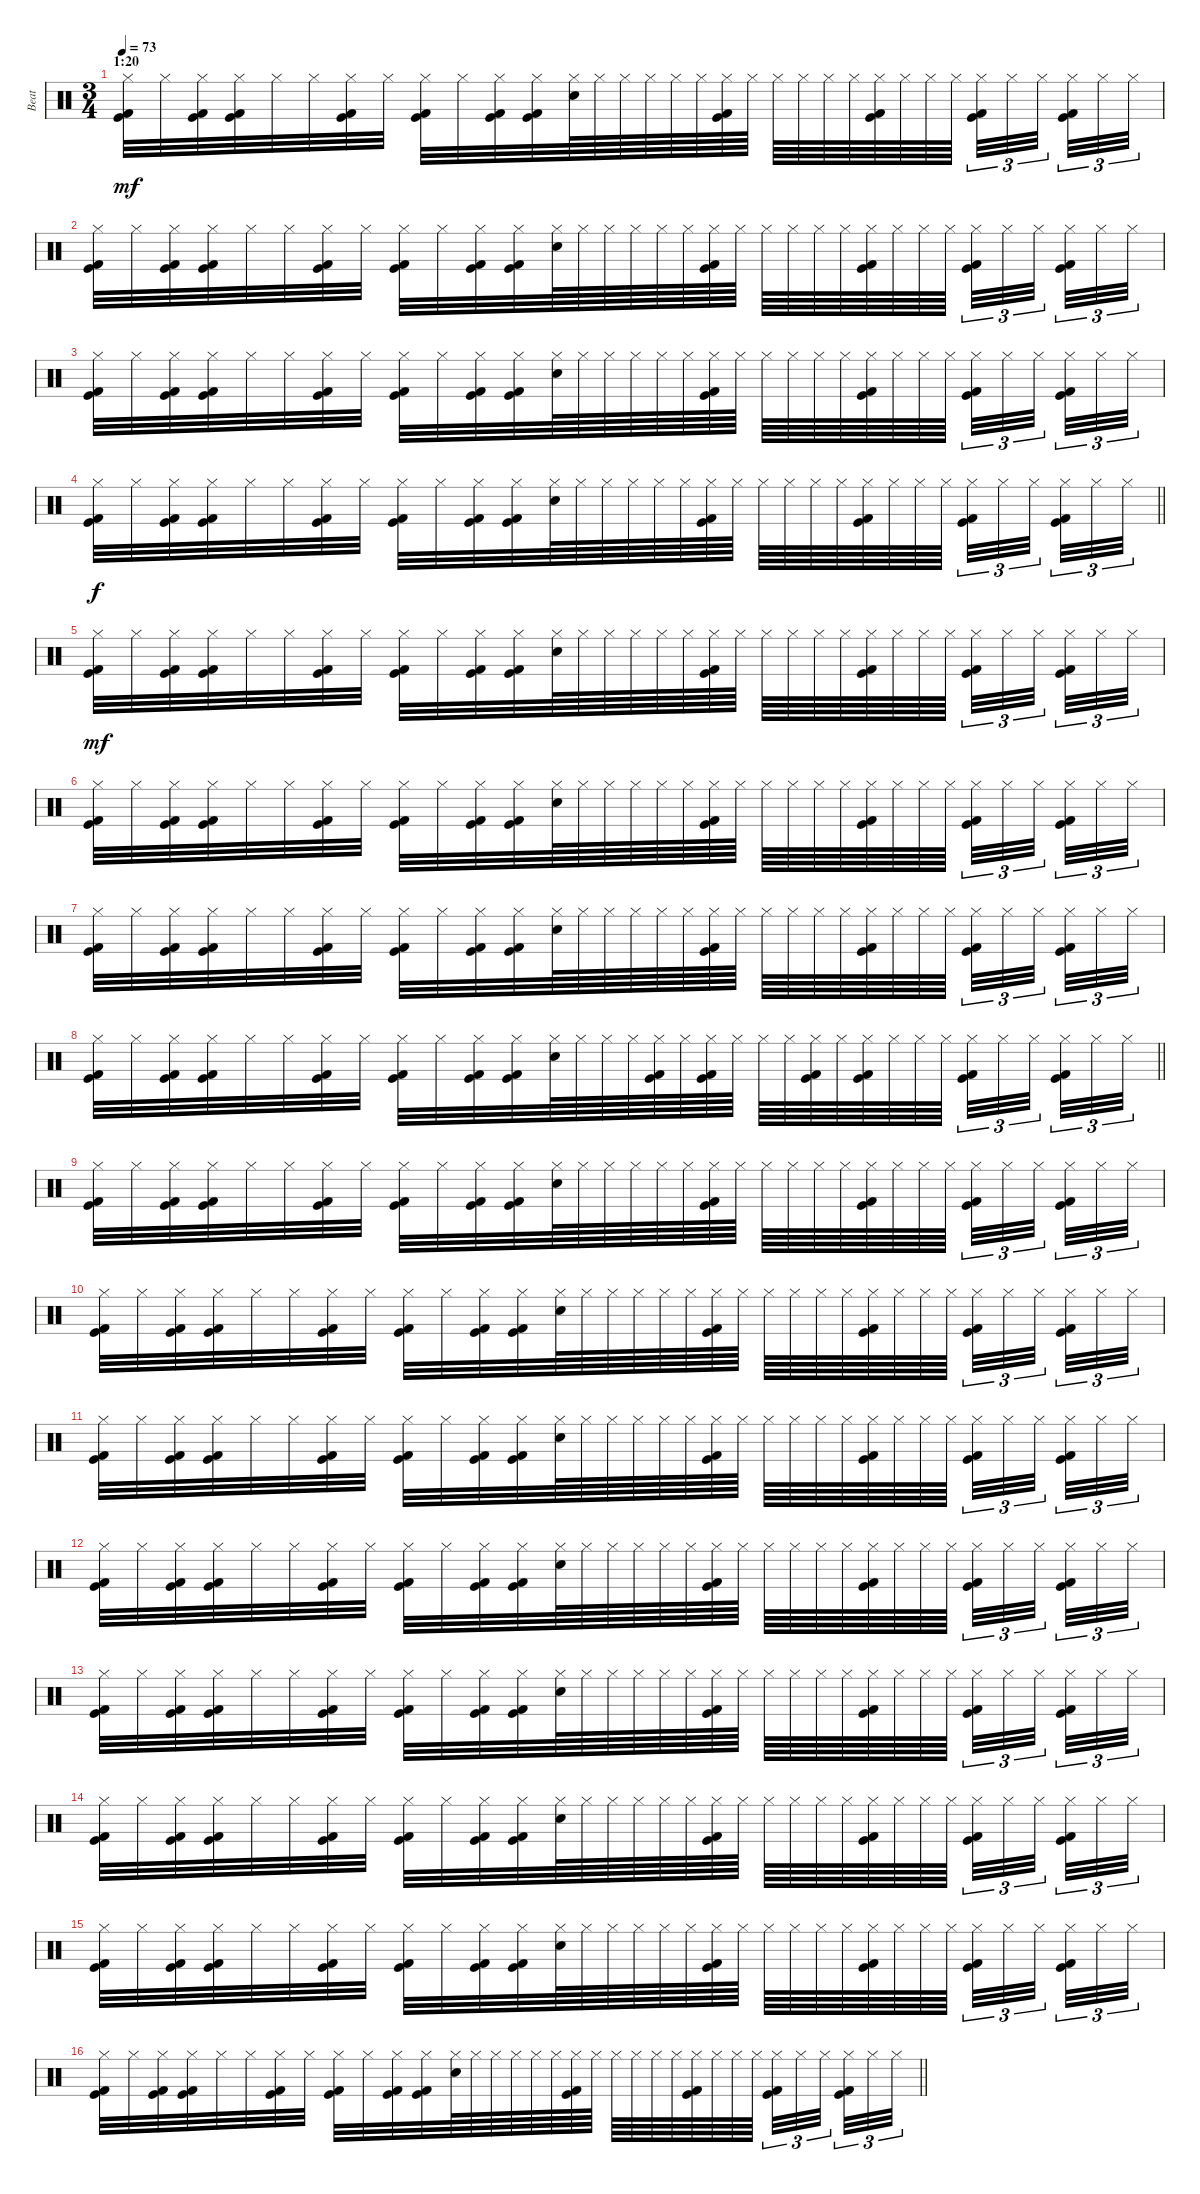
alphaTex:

\track ("Beat" "Beat") {instrument percussion}
\staff {score}
\articulation defaults
\ts (3 4)
\section ("" "1:20")
\tempo 73
\clef neutral
\ks c
("Hi-Hat (closed)" "Kick (hit)" "Kick (hit) 2").32{dy mf} "Hi-Hat (closed)".32 ("Hi-Hat (closed)" "Kick (hit)" "Kick (hit) 2").32 ("Hi-Hat (closed)" "Kick (hit)" "Kick (hit) 2").32 "Hi-Hat (closed)".32 "Hi-Hat (closed)".32 ("Hi-Hat (closed)" "Kick (hit)" "Kick (hit) 2").32 "Hi-Hat (closed)".32 ("Hi-Hat (closed)" "Kick (hit)" "Kick (hit) 2").32 "Hi-Hat (closed)".32 ("Hi-Hat (closed)" "Kick (hit)" "Kick (hit) 2").32 ("Hi-Hat (closed)" "Kick (hit)" "Kick (hit) 2").32 ("Hi-Hat (closed)" "Snare (hit) 2").64 "Hi-Hat (closed)".64 "Hi-Hat (closed)".64 "Hi-Hat (closed)".64 "Hi-Hat (closed)".64 "Hi-Hat (closed)".64 ("Hi-Hat (closed)" "Kick (hit)" "Kick (hit) 2").64 "Hi-Hat (closed)".64 "Hi-Hat (closed)".64 "Hi-Hat (closed)".64 "Hi-Hat (closed)".64 "Hi-Hat (closed)".64 ("Hi-Hat (closed)" "Kick (hit)" "Kick (hit) 2").64 "Hi-Hat (closed)".64 "Hi-Hat (closed)".64 "Hi-Hat (closed)".64{beam splitsecondary} ("Hi-Hat (closed)" "Kick (hit)" "Kick (hit) 2").32{tu (3 2)} "Hi-Hat (closed)".32{tu (3 2)} "Hi-Hat (closed)".32{tu (3 2) beam splitsecondary} ("Hi-Hat (closed)" "Kick (hit)" "Kick (hit) 2").32{tu (3 2)} "Hi-Hat (closed)".32{tu (3 2)} "Hi-Hat (closed)".32{tu (3 2)} |
("Hi-Hat (closed)" "Kick (hit)" "Kick (hit) 2").32 "Hi-Hat (closed)".32 ("Hi-Hat (closed)" "Kick (hit)" "Kick (hit) 2").32 ("Hi-Hat (closed)" "Kick (hit)" "Kick (hit) 2").32 "Hi-Hat (closed)".32 "Hi-Hat (closed)".32 ("Hi-Hat (closed)" "Kick (hit)" "Kick (hit) 2").32 "Hi-Hat (closed)".32 ("Hi-Hat (closed)" "Kick (hit)" "Kick (hit) 2").32 "Hi-Hat (closed)".32 ("Hi-Hat (closed)" "Kick (hit)" "Kick (hit) 2").32 ("Hi-Hat (closed)" "Kick (hit)" "Kick (hit) 2").32 ("Hi-Hat (closed)" "Snare (hit) 2").64 "Hi-Hat (closed)".64 "Hi-Hat (closed)".64 "Hi-Hat (closed)".64 "Hi-Hat (closed)".64 "Hi-Hat (closed)".64 ("Hi-Hat (closed)" "Kick (hit)" "Kick (hit) 2").64 "Hi-Hat (closed)".64 "Hi-Hat (closed)".64 "Hi-Hat (closed)".64 "Hi-Hat (closed)".64 "Hi-Hat (closed)".64 ("Hi-Hat (closed)" "Kick (hit)" "Kick (hit) 2").64 "Hi-Hat (closed)".64 "Hi-Hat (closed)".64 "Hi-Hat (closed)".64{beam splitsecondary} ("Hi-Hat (closed)" "Kick (hit)" "Kick (hit) 2").32{tu (3 2)} "Hi-Hat (closed)".32{tu (3 2)} "Hi-Hat (closed)".32{tu (3 2) beam splitsecondary} ("Hi-Hat (closed)" "Kick (hit)" "Kick (hit) 2").32{tu (3 2)} "Hi-Hat (closed)".32{tu (3 2)} "Hi-Hat (closed)".32{tu (3 2)} |
("Hi-Hat (closed)" "Kick (hit)" "Kick (hit) 2").32 "Hi-Hat (closed)".32 ("Hi-Hat (closed)" "Kick (hit)" "Kick (hit) 2").32 ("Hi-Hat (closed)" "Kick (hit)" "Kick (hit) 2").32 "Hi-Hat (closed)".32 "Hi-Hat (closed)".32 ("Hi-Hat (closed)" "Kick (hit)" "Kick (hit) 2").32 "Hi-Hat (closed)".32 ("Hi-Hat (closed)" "Kick (hit)" "Kick (hit) 2").32 "Hi-Hat (closed)".32 ("Hi-Hat (closed)" "Kick (hit)" "Kick (hit) 2").32 ("Hi-Hat (closed)" "Kick (hit)" "Kick (hit) 2").32 ("Hi-Hat (closed)" "Snare (hit) 2").64 "Hi-Hat (closed)".64 "Hi-Hat (closed)".64 "Hi-Hat (closed)".64 "Hi-Hat (closed)".64 "Hi-Hat (closed)".64 ("Hi-Hat (closed)" "Kick (hit)" "Kick (hit) 2").64 "Hi-Hat (closed)".64 "Hi-Hat (closed)".64 "Hi-Hat (closed)".64 "Hi-Hat (closed)".64 "Hi-Hat (closed)".64 ("Hi-Hat (closed)" "Kick (hit)" "Kick (hit) 2").64 "Hi-Hat (closed)".64 "Hi-Hat (closed)".64 "Hi-Hat (closed)".64{beam splitsecondary} ("Hi-Hat (closed)" "Kick (hit)" "Kick (hit) 2").32{tu (3 2)} "Hi-Hat (closed)".32{tu (3 2)} "Hi-Hat (closed)".32{tu (3 2) beam splitsecondary} ("Hi-Hat (closed)" "Kick (hit)" "Kick (hit) 2").32{tu (3 2)} "Hi-Hat (closed)".32{tu (3 2)} "Hi-Hat (closed)".32{tu (3 2)} |
\barLineRight lightlight
("Hi-Hat (closed)" "Kick (hit)" "Kick (hit) 2").32{dy f} "Hi-Hat (closed)".32 ("Hi-Hat (closed)" "Kick (hit)" "Kick (hit) 2").32 ("Hi-Hat (closed)" "Kick (hit)" "Kick (hit) 2").32 "Hi-Hat (closed)".32 "Hi-Hat (closed)".32 ("Hi-Hat (closed)" "Kick (hit)" "Kick (hit) 2").32 "Hi-Hat (closed)".32 ("Hi-Hat (closed)" "Kick (hit)" "Kick (hit) 2").32 "Hi-Hat (closed)".32 ("Hi-Hat (closed)" "Kick (hit)" "Kick (hit) 2").32 ("Hi-Hat (closed)" "Kick (hit)" "Kick (hit) 2").32 ("Hi-Hat (closed)" "Snare (hit) 2").64 "Hi-Hat (closed)".64 "Hi-Hat (closed)".64 "Hi-Hat (closed)".64 "Hi-Hat (closed)".64 "Hi-Hat (closed)".64 ("Hi-Hat (closed)" "Kick (hit)" "Kick (hit) 2").64 "Hi-Hat (closed)".64 "Hi-Hat (closed)".64 "Hi-Hat (closed)".64 "Hi-Hat (closed)".64 "Hi-Hat (closed)".64 ("Hi-Hat (closed)" "Kick (hit)" "Kick (hit) 2").64 "Hi-Hat (closed)".64 "Hi-Hat (closed)".64 "Hi-Hat (closed)".64{beam splitsecondary} ("Hi-Hat (closed)" "Kick (hit)" "Kick (hit) 2").32{tu (3 2)} "Hi-Hat (closed)".32{tu (3 2)} "Hi-Hat (closed)".32{tu (3 2) beam splitsecondary} ("Hi-Hat (closed)" "Kick (hit)" "Kick (hit) 2").32{tu (3 2)} "Hi-Hat (closed)".32{tu (3 2)} "Hi-Hat (closed)".32{tu (3 2)} |
("Hi-Hat (closed)" "Kick (hit)" "Kick (hit) 2").32{dy mf} "Hi-Hat (closed)".32 ("Hi-Hat (closed)" "Kick (hit)" "Kick (hit) 2").32 ("Hi-Hat (closed)" "Kick (hit)" "Kick (hit) 2").32 "Hi-Hat (closed)".32 "Hi-Hat (closed)".32 ("Hi-Hat (closed)" "Kick (hit)" "Kick (hit) 2").32 "Hi-Hat (closed)".32 ("Hi-Hat (closed)" "Kick (hit)" "Kick (hit) 2").32 "Hi-Hat (closed)".32 ("Hi-Hat (closed)" "Kick (hit)" "Kick (hit) 2").32 ("Hi-Hat (closed)" "Kick (hit)" "Kick (hit) 2").32 ("Hi-Hat (closed)" "Snare (hit) 2").64 "Hi-Hat (closed)".64 "Hi-Hat (closed)".64 "Hi-Hat (closed)".64 "Hi-Hat (closed)".64 "Hi-Hat (closed)".64 ("Hi-Hat (closed)" "Kick (hit)" "Kick (hit) 2").64 "Hi-Hat (closed)".64 "Hi-Hat (closed)".64 "Hi-Hat (closed)".64 "Hi-Hat (closed)".64 "Hi-Hat (closed)".64 ("Hi-Hat (closed)" "Kick (hit)" "Kick (hit) 2").64 "Hi-Hat (closed)".64 "Hi-Hat (closed)".64 "Hi-Hat (closed)".64{beam splitsecondary} ("Hi-Hat (closed)" "Kick (hit)" "Kick (hit) 2").32{tu (3 2)} "Hi-Hat (closed)".32{tu (3 2)} "Hi-Hat (closed)".32{tu (3 2) beam splitsecondary} ("Hi-Hat (closed)" "Kick (hit)" "Kick (hit) 2").32{tu (3 2)} "Hi-Hat (closed)".32{tu (3 2)} "Hi-Hat (closed)".32{tu (3 2)} |
("Hi-Hat (closed)" "Kick (hit)" "Kick (hit) 2").32 "Hi-Hat (closed)".32 ("Hi-Hat (closed)" "Kick (hit)" "Kick (hit) 2").32 ("Hi-Hat (closed)" "Kick (hit)" "Kick (hit) 2").32 "Hi-Hat (closed)".32 "Hi-Hat (closed)".32 ("Hi-Hat (closed)" "Kick (hit)" "Kick (hit) 2").32 "Hi-Hat (closed)".32 ("Hi-Hat (closed)" "Kick (hit)" "Kick (hit) 2").32 "Hi-Hat (closed)".32 ("Hi-Hat (closed)" "Kick (hit)" "Kick (hit) 2").32 ("Hi-Hat (closed)" "Kick (hit)" "Kick (hit) 2").32 ("Hi-Hat (closed)" "Snare (hit) 2").64 "Hi-Hat (closed)".64 "Hi-Hat (closed)".64 "Hi-Hat (closed)".64 "Hi-Hat (closed)".64 "Hi-Hat (closed)".64 ("Hi-Hat (closed)" "Kick (hit)" "Kick (hit) 2").64 "Hi-Hat (closed)".64 "Hi-Hat (closed)".64 "Hi-Hat (closed)".64 "Hi-Hat (closed)".64 "Hi-Hat (closed)".64 ("Hi-Hat (closed)" "Kick (hit)" "Kick (hit) 2").64 "Hi-Hat (closed)".64 "Hi-Hat (closed)".64 "Hi-Hat (closed)".64{beam splitsecondary} ("Hi-Hat (closed)" "Kick (hit)" "Kick (hit) 2").32{tu (3 2)} "Hi-Hat (closed)".32{tu (3 2)} "Hi-Hat (closed)".32{tu (3 2) beam splitsecondary} ("Hi-Hat (closed)" "Kick (hit)" "Kick (hit) 2").32{tu (3 2)} "Hi-Hat (closed)".32{tu (3 2)} "Hi-Hat (closed)".32{tu (3 2)} |
("Hi-Hat (closed)" "Kick (hit)" "Kick (hit) 2").32 "Hi-Hat (closed)".32 ("Hi-Hat (closed)" "Kick (hit)" "Kick (hit) 2").32 ("Hi-Hat (closed)" "Kick (hit)" "Kick (hit) 2").32 "Hi-Hat (closed)".32 "Hi-Hat (closed)".32 ("Hi-Hat (closed)" "Kick (hit)" "Kick (hit) 2").32 "Hi-Hat (closed)".32 ("Hi-Hat (closed)" "Kick (hit)" "Kick (hit) 2").32 "Hi-Hat (closed)".32 ("Hi-Hat (closed)" "Kick (hit)" "Kick (hit) 2").32 ("Hi-Hat (closed)" "Kick (hit)" "Kick (hit) 2").32 ("Hi-Hat (closed)" "Snare (hit) 2").64 "Hi-Hat (closed)".64 "Hi-Hat (closed)".64 "Hi-Hat (closed)".64 "Hi-Hat (closed)".64 "Hi-Hat (closed)".64 ("Hi-Hat (closed)" "Kick (hit)" "Kick (hit) 2").64 "Hi-Hat (closed)".64 "Hi-Hat (closed)".64 "Hi-Hat (closed)".64 "Hi-Hat (closed)".64 "Hi-Hat (closed)".64 ("Hi-Hat (closed)" "Kick (hit)" "Kick (hit) 2").64 "Hi-Hat (closed)".64 "Hi-Hat (closed)".64 "Hi-Hat (closed)".64{beam splitsecondary} ("Hi-Hat (closed)" "Kick (hit)" "Kick (hit) 2").32{tu (3 2)} "Hi-Hat (closed)".32{tu (3 2)} "Hi-Hat (closed)".32{tu (3 2) beam splitsecondary} ("Hi-Hat (closed)" "Kick (hit)" "Kick (hit) 2").32{tu (3 2)} "Hi-Hat (closed)".32{tu (3 2)} "Hi-Hat (closed)".32{tu (3 2)} |
\barLineRight lightlight
("Hi-Hat (closed)" "Kick (hit)" "Kick (hit) 2").32 "Hi-Hat (closed)".32 ("Hi-Hat (closed)" "Kick (hit)" "Kick (hit) 2").32 ("Hi-Hat (closed)" "Kick (hit)" "Kick (hit) 2").32 "Hi-Hat (closed)".32 "Hi-Hat (closed)".32 ("Hi-Hat (closed)" "Kick (hit)" "Kick (hit) 2").32 "Hi-Hat (closed)".32 ("Hi-Hat (closed)" "Kick (hit)" "Kick (hit) 2").32 "Hi-Hat (closed)".32 ("Hi-Hat (closed)" "Kick (hit)" "Kick (hit) 2").32 ("Hi-Hat (closed)" "Kick (hit)" "Kick (hit) 2").32 ("Hi-Hat (closed)" "Snare (hit) 2").64 "Hi-Hat (closed)".64 "Hi-Hat (closed)".64 "Hi-Hat (closed)".64 ("Hi-Hat (closed)" "Kick (hit)" "Kick (hit) 2").64 "Hi-Hat (closed)".64 ("Hi-Hat (closed)" "Kick (hit)" "Kick (hit) 2").64 "Hi-Hat (closed)".64 "Hi-Hat (closed)".64 "Hi-Hat (closed)".64 ("Hi-Hat (closed)" "Kick (hit)" "Kick (hit) 2").64 "Hi-Hat (closed)".64 ("Hi-Hat (closed)" "Kick (hit)" "Kick (hit) 2").64 "Hi-Hat (closed)".64 "Hi-Hat (closed)".64 "Hi-Hat (closed)".64{beam splitsecondary} ("Hi-Hat (closed)" "Kick (hit)" "Kick (hit) 2").32{tu (3 2)} "Hi-Hat (closed)".32{tu (3 2)} "Hi-Hat (closed)".32{tu (3 2) beam splitsecondary} ("Hi-Hat (closed)" "Kick (hit)" "Kick (hit) 2").32{tu (3 2)} "Hi-Hat (closed)".32{tu (3 2)} "Hi-Hat (closed)".32{tu (3 2)} |
("Hi-Hat (closed)" "Kick (hit)" "Kick (hit) 2").32 "Hi-Hat (closed)".32 ("Hi-Hat (closed)" "Kick (hit)" "Kick (hit) 2").32 ("Hi-Hat (closed)" "Kick (hit)" "Kick (hit) 2").32 "Hi-Hat (closed)".32 "Hi-Hat (closed)".32 ("Hi-Hat (closed)" "Kick (hit)" "Kick (hit) 2").32 "Hi-Hat (closed)".32 ("Hi-Hat (closed)" "Kick (hit)" "Kick (hit) 2").32 "Hi-Hat (closed)".32 ("Hi-Hat (closed)" "Kick (hit)" "Kick (hit) 2").32 ("Hi-Hat (closed)" "Kick (hit)" "Kick (hit) 2").32 ("Hi-Hat (closed)" "Snare (hit) 2").64 "Hi-Hat (closed)".64 "Hi-Hat (closed)".64 "Hi-Hat (closed)".64 "Hi-Hat (closed)".64 "Hi-Hat (closed)".64 ("Hi-Hat (closed)" "Kick (hit)" "Kick (hit) 2").64 "Hi-Hat (closed)".64 "Hi-Hat (closed)".64 "Hi-Hat (closed)".64 "Hi-Hat (closed)".64 "Hi-Hat (closed)".64 ("Hi-Hat (closed)" "Kick (hit)" "Kick (hit) 2").64 "Hi-Hat (closed)".64 "Hi-Hat (closed)".64 "Hi-Hat (closed)".64{beam splitsecondary} ("Hi-Hat (closed)" "Kick (hit)" "Kick (hit) 2").32{tu (3 2)} "Hi-Hat (closed)".32{tu (3 2)} "Hi-Hat (closed)".32{tu (3 2) beam splitsecondary} ("Hi-Hat (closed)" "Kick (hit)" "Kick (hit) 2").32{tu (3 2)} "Hi-Hat (closed)".32{tu (3 2)} "Hi-Hat (closed)".32{tu (3 2)} |
("Hi-Hat (closed)" "Kick (hit)" "Kick (hit) 2").32 "Hi-Hat (closed)".32 ("Hi-Hat (closed)" "Kick (hit)" "Kick (hit) 2").32 ("Hi-Hat (closed)" "Kick (hit)" "Kick (hit) 2").32 "Hi-Hat (closed)".32 "Hi-Hat (closed)".32 ("Hi-Hat (closed)" "Kick (hit)" "Kick (hit) 2").32 "Hi-Hat (closed)".32 ("Hi-Hat (closed)" "Kick (hit)" "Kick (hit) 2").32 "Hi-Hat (closed)".32 ("Hi-Hat (closed)" "Kick (hit)" "Kick (hit) 2").32 ("Hi-Hat (closed)" "Kick (hit)" "Kick (hit) 2").32 ("Hi-Hat (closed)" "Snare (hit) 2").64 "Hi-Hat (closed)".64 "Hi-Hat (closed)".64 "Hi-Hat (closed)".64 "Hi-Hat (closed)".64 "Hi-Hat (closed)".64 ("Hi-Hat (closed)" "Kick (hit)" "Kick (hit) 2").64 "Hi-Hat (closed)".64 "Hi-Hat (closed)".64 "Hi-Hat (closed)".64 "Hi-Hat (closed)".64 "Hi-Hat (closed)".64 ("Hi-Hat (closed)" "Kick (hit)" "Kick (hit) 2").64 "Hi-Hat (closed)".64 "Hi-Hat (closed)".64 "Hi-Hat (closed)".64{beam splitsecondary} ("Hi-Hat (closed)" "Kick (hit)" "Kick (hit) 2").32{tu (3 2)} "Hi-Hat (closed)".32{tu (3 2)} "Hi-Hat (closed)".32{tu (3 2) beam splitsecondary} ("Hi-Hat (closed)" "Kick (hit)" "Kick (hit) 2").32{tu (3 2)} "Hi-Hat (closed)".32{tu (3 2)} "Hi-Hat (closed)".32{tu (3 2)} |
("Hi-Hat (closed)" "Kick (hit)" "Kick (hit) 2").32 "Hi-Hat (closed)".32 ("Hi-Hat (closed)" "Kick (hit)" "Kick (hit) 2").32 ("Hi-Hat (closed)" "Kick (hit)" "Kick (hit) 2").32 "Hi-Hat (closed)".32 "Hi-Hat (closed)".32 ("Hi-Hat (closed)" "Kick (hit)" "Kick (hit) 2").32 "Hi-Hat (closed)".32 ("Hi-Hat (closed)" "Kick (hit)" "Kick (hit) 2").32 "Hi-Hat (closed)".32 ("Hi-Hat (closed)" "Kick (hit)" "Kick (hit) 2").32 ("Hi-Hat (closed)" "Kick (hit)" "Kick (hit) 2").32 ("Hi-Hat (closed)" "Snare (hit) 2").64 "Hi-Hat (closed)".64 "Hi-Hat (closed)".64 "Hi-Hat (closed)".64 "Hi-Hat (closed)".64 "Hi-Hat (closed)".64 ("Hi-Hat (closed)" "Kick (hit)" "Kick (hit) 2").64 "Hi-Hat (closed)".64 "Hi-Hat (closed)".64 "Hi-Hat (closed)".64 "Hi-Hat (closed)".64 "Hi-Hat (closed)".64 ("Hi-Hat (closed)" "Kick (hit)" "Kick (hit) 2").64 "Hi-Hat (closed)".64 "Hi-Hat (closed)".64 "Hi-Hat (closed)".64{beam splitsecondary} ("Hi-Hat (closed)" "Kick (hit)" "Kick (hit) 2").32{tu (3 2)} "Hi-Hat (closed)".32{tu (3 2)} "Hi-Hat (closed)".32{tu (3 2) beam splitsecondary} ("Hi-Hat (closed)" "Kick (hit)" "Kick (hit) 2").32{tu (3 2)} "Hi-Hat (closed)".32{tu (3 2)} "Hi-Hat (closed)".32{tu (3 2)} |
("Hi-Hat (closed)" "Kick (hit)" "Kick (hit) 2").32 "Hi-Hat (closed)".32 ("Hi-Hat (closed)" "Kick (hit)" "Kick (hit) 2").32 ("Hi-Hat (closed)" "Kick (hit)" "Kick (hit) 2").32 "Hi-Hat (closed)".32 "Hi-Hat (closed)".32 ("Hi-Hat (closed)" "Kick (hit)" "Kick (hit) 2").32 "Hi-Hat (closed)".32 ("Hi-Hat (closed)" "Kick (hit)" "Kick (hit) 2").32 "Hi-Hat (closed)".32 ("Hi-Hat (closed)" "Kick (hit)" "Kick (hit) 2").32 ("Hi-Hat (closed)" "Kick (hit)" "Kick (hit) 2").32 ("Hi-Hat (closed)" "Snare (hit) 2").64 "Hi-Hat (closed)".64 "Hi-Hat (closed)".64 "Hi-Hat (closed)".64 "Hi-Hat (closed)".64 "Hi-Hat (closed)".64 ("Hi-Hat (closed)" "Kick (hit)" "Kick (hit) 2").64 "Hi-Hat (closed)".64 "Hi-Hat (closed)".64 "Hi-Hat (closed)".64 "Hi-Hat (closed)".64 "Hi-Hat (closed)".64 ("Hi-Hat (closed)" "Kick (hit)" "Kick (hit) 2").64 "Hi-Hat (closed)".64 "Hi-Hat (closed)".64 "Hi-Hat (closed)".64{beam splitsecondary} ("Hi-Hat (closed)" "Kick (hit)" "Kick (hit) 2").32{tu (3 2)} "Hi-Hat (closed)".32{tu (3 2)} "Hi-Hat (closed)".32{tu (3 2) beam splitsecondary} ("Hi-Hat (closed)" "Kick (hit)" "Kick (hit) 2").32{tu (3 2)} "Hi-Hat (closed)".32{tu (3 2)} "Hi-Hat (closed)".32{tu (3 2)} |
("Hi-Hat (closed)" "Kick (hit)" "Kick (hit) 2").32 "Hi-Hat (closed)".32 ("Hi-Hat (closed)" "Kick (hit)" "Kick (hit) 2").32 ("Hi-Hat (closed)" "Kick (hit)" "Kick (hit) 2").32 "Hi-Hat (closed)".32 "Hi-Hat (closed)".32 ("Hi-Hat (closed)" "Kick (hit)" "Kick (hit) 2").32 "Hi-Hat (closed)".32 ("Hi-Hat (closed)" "Kick (hit)" "Kick (hit) 2").32 "Hi-Hat (closed)".32 ("Hi-Hat (closed)" "Kick (hit)" "Kick (hit) 2").32 ("Hi-Hat (closed)" "Kick (hit)" "Kick (hit) 2").32 ("Hi-Hat (closed)" "Snare (hit) 2").64 "Hi-Hat (closed)".64 "Hi-Hat (closed)".64 "Hi-Hat (closed)".64 "Hi-Hat (closed)".64 "Hi-Hat (closed)".64 ("Hi-Hat (closed)" "Kick (hit)" "Kick (hit) 2").64 "Hi-Hat (closed)".64 "Hi-Hat (closed)".64 "Hi-Hat (closed)".64 "Hi-Hat (closed)".64 "Hi-Hat (closed)".64 ("Hi-Hat (closed)" "Kick (hit)" "Kick (hit) 2").64 "Hi-Hat (closed)".64 "Hi-Hat (closed)".64 "Hi-Hat (closed)".64{beam splitsecondary} ("Hi-Hat (closed)" "Kick (hit)" "Kick (hit) 2").32{tu (3 2)} "Hi-Hat (closed)".32{tu (3 2)} "Hi-Hat (closed)".32{tu (3 2) beam splitsecondary} ("Hi-Hat (closed)" "Kick (hit)" "Kick (hit) 2").32{tu (3 2)} "Hi-Hat (closed)".32{tu (3 2)} "Hi-Hat (closed)".32{tu (3 2)} |
("Hi-Hat (closed)" "Kick (hit)" "Kick (hit) 2").32 "Hi-Hat (closed)".32 ("Hi-Hat (closed)" "Kick (hit)" "Kick (hit) 2").32 ("Hi-Hat (closed)" "Kick (hit)" "Kick (hit) 2").32 "Hi-Hat (closed)".32 "Hi-Hat (closed)".32 ("Hi-Hat (closed)" "Kick (hit)" "Kick (hit) 2").32 "Hi-Hat (closed)".32 ("Hi-Hat (closed)" "Kick (hit)" "Kick (hit) 2").32 "Hi-Hat (closed)".32 ("Hi-Hat (closed)" "Kick (hit)" "Kick (hit) 2").32 ("Hi-Hat (closed)" "Kick (hit)" "Kick (hit) 2").32 ("Hi-Hat (closed)" "Snare (hit) 2").64 "Hi-Hat (closed)".64 "Hi-Hat (closed)".64 "Hi-Hat (closed)".64 "Hi-Hat (closed)".64 "Hi-Hat (closed)".64 ("Hi-Hat (closed)" "Kick (hit)" "Kick (hit) 2").64 "Hi-Hat (closed)".64 "Hi-Hat (closed)".64 "Hi-Hat (closed)".64 "Hi-Hat (closed)".64 "Hi-Hat (closed)".64 ("Hi-Hat (closed)" "Kick (hit)" "Kick (hit) 2").64 "Hi-Hat (closed)".64 "Hi-Hat (closed)".64 "Hi-Hat (closed)".64{beam splitsecondary} ("Hi-Hat (closed)" "Kick (hit)" "Kick (hit) 2").32{tu (3 2)} "Hi-Hat (closed)".32{tu (3 2)} "Hi-Hat (closed)".32{tu (3 2) beam splitsecondary} ("Hi-Hat (closed)" "Kick (hit)" "Kick (hit) 2").32{tu (3 2)} "Hi-Hat (closed)".32{tu (3 2)} "Hi-Hat (closed)".32{tu (3 2)} |
("Hi-Hat (closed)" "Kick (hit)" "Kick (hit) 2").32 "Hi-Hat (closed)".32 ("Hi-Hat (closed)" "Kick (hit)" "Kick (hit) 2").32 ("Hi-Hat (closed)" "Kick (hit)" "Kick (hit) 2").32 "Hi-Hat (closed)".32 "Hi-Hat (closed)".32 ("Hi-Hat (closed)" "Kick (hit)" "Kick (hit) 2").32 "Hi-Hat (closed)".32 ("Hi-Hat (closed)" "Kick (hit)" "Kick (hit) 2").32 "Hi-Hat (closed)".32 ("Hi-Hat (closed)" "Kick (hit)" "Kick (hit) 2").32 ("Hi-Hat (closed)" "Kick (hit)" "Kick (hit) 2").32 ("Hi-Hat (closed)" "Snare (hit) 2").64 "Hi-Hat (closed)".64 "Hi-Hat (closed)".64 "Hi-Hat (closed)".64 "Hi-Hat (closed)".64 "Hi-Hat (closed)".64 ("Hi-Hat (closed)" "Kick (hit)" "Kick (hit) 2").64 "Hi-Hat (closed)".64 "Hi-Hat (closed)".64 "Hi-Hat (closed)".64 "Hi-Hat (closed)".64 "Hi-Hat (closed)".64 ("Hi-Hat (closed)" "Kick (hit)" "Kick (hit) 2").64 "Hi-Hat (closed)".64 "Hi-Hat (closed)".64 "Hi-Hat (closed)".64{beam splitsecondary} ("Hi-Hat (closed)" "Kick (hit)" "Kick (hit) 2").32{tu (3 2)} "Hi-Hat (closed)".32{tu (3 2)} "Hi-Hat (closed)".32{tu (3 2) beam splitsecondary} ("Hi-Hat (closed)" "Kick (hit)" "Kick (hit) 2").32{tu (3 2)} "Hi-Hat (closed)".32{tu (3 2)} "Hi-Hat (closed)".32{tu (3 2)} |
\barLineRight lightlight
("Hi-Hat (closed)" "Kick (hit)" "Kick (hit) 2").32 "Hi-Hat (closed)".32 ("Hi-Hat (closed)" "Kick (hit)" "Kick (hit) 2").32 ("Hi-Hat (closed)" "Kick (hit)" "Kick (hit) 2").32 "Hi-Hat (closed)".32 "Hi-Hat (closed)".32 ("Hi-Hat (closed)" "Kick (hit)" "Kick (hit) 2").32 "Hi-Hat (closed)".32 ("Hi-Hat (closed)" "Kick (hit)" "Kick (hit) 2").32 "Hi-Hat (closed)".32 ("Hi-Hat (closed)" "Kick (hit)" "Kick (hit) 2").32 ("Hi-Hat (closed)" "Kick (hit)" "Kick (hit) 2").32 ("Hi-Hat (closed)" "Snare (hit) 2").64 "Hi-Hat (closed)".64 "Hi-Hat (closed)".64 "Hi-Hat (closed)".64 "Hi-Hat (closed)".64 "Hi-Hat (closed)".64 ("Hi-Hat (closed)" "Kick (hit)" "Kick (hit) 2").64 "Hi-Hat (closed)".64 "Hi-Hat (closed)".64 "Hi-Hat (closed)".64 "Hi-Hat (closed)".64 "Hi-Hat (closed)".64 ("Hi-Hat (closed)" "Kick (hit)" "Kick (hit) 2").64 "Hi-Hat (closed)".64 "Hi-Hat (closed)".64 "Hi-Hat (closed)".64{beam splitsecondary} ("Hi-Hat (closed)" "Kick (hit)" "Kick (hit) 2").32{tu (3 2)} "Hi-Hat (closed)".32{tu (3 2)} "Hi-Hat (closed)".32{tu (3 2) beam splitsecondary} ("Hi-Hat (closed)" "Kick (hit)" "Kick (hit) 2").32{tu (3 2)} "Hi-Hat (closed)".32{tu (3 2)} "Hi-Hat (closed)".32{tu (3 2)}
